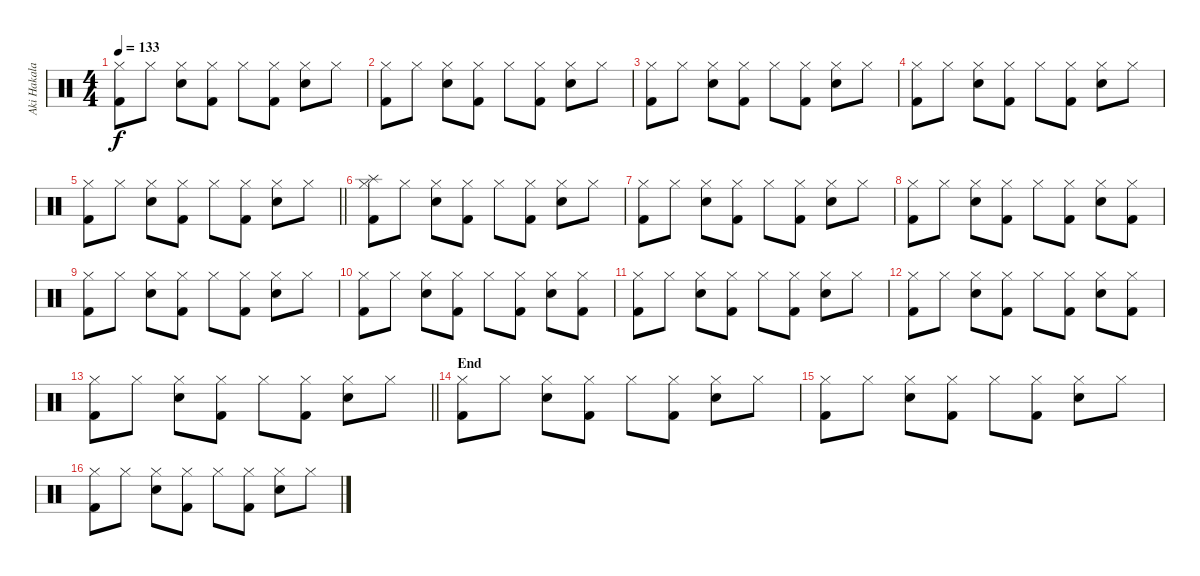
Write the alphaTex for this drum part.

\track ("Aki Hakala - Drums" "Aki Hakala") {instrument percussion}
\staff {score}
\articulation defaults
\ts (4 4)
\tempo 133
\clef neutral
\ks c
("Hi-Hat (closed)" "Kick (hit) 2").8{dy f} "Hi-Hat (closed)".8 ("Snare (hit) 2" "Hi-Hat (closed)").8 ("Hi-Hat (closed)" "Kick (hit) 2").8 "Hi-Hat (closed)".8 ("Hi-Hat (closed)" "Kick (hit) 2").8 ("Snare (hit) 2" "Hi-Hat (closed)").8 "Hi-Hat (closed)".8 |
("Hi-Hat (closed)" "Kick (hit) 2").8 "Hi-Hat (closed)".8 ("Snare (hit) 2" "Hi-Hat (closed)").8 ("Hi-Hat (closed)" "Kick (hit) 2").8 "Hi-Hat (closed)".8 ("Hi-Hat (closed)" "Kick (hit) 2").8 ("Snare (hit) 2" "Hi-Hat (closed)").8 "Hi-Hat (closed)".8 |
("Hi-Hat (closed)" "Kick (hit) 2").8 "Hi-Hat (closed)".8 ("Snare (hit) 2" "Hi-Hat (closed)").8 ("Hi-Hat (closed)" "Kick (hit) 2").8 "Hi-Hat (closed)".8 ("Hi-Hat (closed)" "Kick (hit) 2").8 ("Snare (hit) 2" "Hi-Hat (closed)").8 "Hi-Hat (closed)".8 |
("Hi-Hat (closed)" "Kick (hit) 2").8 "Hi-Hat (closed)".8 ("Snare (hit) 2" "Hi-Hat (closed)").8 ("Hi-Hat (closed)" "Kick (hit) 2").8 "Hi-Hat (closed)".8 ("Hi-Hat (closed)" "Kick (hit) 2").8 ("Snare (hit) 2" "Hi-Hat (closed)").8 "Hi-Hat (closed)".8 |
\barLineRight lightlight
("Hi-Hat (closed)" "Kick (hit) 2").8 "Hi-Hat (closed)".8 ("Snare (hit) 2" "Hi-Hat (closed)").8 ("Hi-Hat (closed)" "Kick (hit) 2").8 "Hi-Hat (closed)".8 ("Hi-Hat (closed)" "Kick (hit) 2").8 ("Snare (hit) 2" "Hi-Hat (closed)").8 "Hi-Hat (closed)".8 |
("Splash (hit)" "Hi-Hat (closed)" "Kick (hit) 2").8 "Hi-Hat (closed)".8 ("Snare (hit) 2" "Hi-Hat (closed)").8 ("Hi-Hat (closed)" "Kick (hit) 2").8 "Hi-Hat (closed)".8 ("Hi-Hat (closed)" "Kick (hit) 2").8 ("Snare (hit) 2" "Hi-Hat (closed)").8 "Hi-Hat (closed)".8 |
("Hi-Hat (closed)" "Kick (hit) 2").8 "Hi-Hat (closed)".8 ("Snare (hit) 2" "Hi-Hat (closed)").8 ("Hi-Hat (closed)" "Kick (hit) 2").8 "Hi-Hat (closed)".8 ("Hi-Hat (closed)" "Kick (hit) 2").8 ("Snare (hit) 2" "Hi-Hat (closed)").8 "Hi-Hat (closed)".8 |
("Hi-Hat (closed)" "Kick (hit) 2").8 "Hi-Hat (closed)".8 ("Snare (hit) 2" "Hi-Hat (closed)").8 ("Hi-Hat (closed)" "Kick (hit) 2").8 "Hi-Hat (closed)".8 ("Hi-Hat (closed)" "Kick (hit) 2").8 ("Snare (hit) 2" "Hi-Hat (closed)").8 ("Hi-Hat (closed)" "Kick (hit) 2").8 |
("Hi-Hat (closed)" "Kick (hit) 2").8 "Hi-Hat (closed)".8 ("Snare (hit) 2" "Hi-Hat (closed)").8 ("Hi-Hat (closed)" "Kick (hit) 2").8 "Hi-Hat (closed)".8 ("Hi-Hat (closed)" "Kick (hit) 2").8 ("Snare (hit) 2" "Hi-Hat (closed)").8 "Hi-Hat (closed)".8 |
("Hi-Hat (closed)" "Kick (hit) 2").8 "Hi-Hat (closed)".8 ("Snare (hit) 2" "Hi-Hat (closed)").8 ("Hi-Hat (closed)" "Kick (hit) 2").8 "Hi-Hat (closed)".8 ("Hi-Hat (closed)" "Kick (hit) 2").8 ("Snare (hit) 2" "Hi-Hat (closed)").8 ("Hi-Hat (closed)" "Kick (hit) 2").8 |
("Hi-Hat (closed)" "Kick (hit) 2").8 "Hi-Hat (closed)".8 ("Snare (hit) 2" "Hi-Hat (closed)").8 ("Hi-Hat (closed)" "Kick (hit) 2").8 "Hi-Hat (closed)".8 ("Hi-Hat (closed)" "Kick (hit) 2").8 ("Snare (hit) 2" "Hi-Hat (closed)").8 "Hi-Hat (closed)".8 |
("Hi-Hat (closed)" "Kick (hit) 2").8 "Hi-Hat (closed)".8 ("Snare (hit) 2" "Hi-Hat (closed)").8 ("Hi-Hat (closed)" "Kick (hit) 2").8 "Hi-Hat (closed)".8 ("Hi-Hat (closed)" "Kick (hit) 2").8 ("Snare (hit) 2" "Hi-Hat (closed)").8 ("Hi-Hat (closed)" "Kick (hit) 2").8 |
\barLineRight lightlight
("Hi-Hat (closed)" "Kick (hit) 2").8 "Hi-Hat (closed)".8 ("Snare (hit) 2" "Hi-Hat (closed)").8 ("Hi-Hat (closed)" "Kick (hit) 2").8 "Hi-Hat (closed)".8 ("Hi-Hat (closed)" "Kick (hit) 2").8 ("Snare (hit) 2" "Hi-Hat (closed)").8 "Hi-Hat (closed)".8 |
\section ("" "End")
("Hi-Hat (closed)" "Kick (hit) 2").8 "Hi-Hat (closed)".8 ("Snare (hit) 2" "Hi-Hat (closed)").8 ("Hi-Hat (closed)" "Kick (hit) 2").8 "Hi-Hat (closed)".8 ("Hi-Hat (closed)" "Kick (hit) 2").8 ("Snare (hit) 2" "Hi-Hat (closed)").8 "Hi-Hat (closed)".8 |
("Hi-Hat (closed)" "Kick (hit) 2").8 "Hi-Hat (closed)".8 ("Snare (hit) 2" "Hi-Hat (closed)").8 ("Hi-Hat (closed)" "Kick (hit) 2").8 "Hi-Hat (closed)".8 ("Hi-Hat (closed)" "Kick (hit) 2").8 ("Snare (hit) 2" "Hi-Hat (closed)").8 "Hi-Hat (closed)".8 |
("Hi-Hat (closed)" "Kick (hit) 2").8 "Hi-Hat (closed)".8 ("Snare (hit) 2" "Hi-Hat (closed)").8 ("Hi-Hat (closed)" "Kick (hit) 2").8 "Hi-Hat (closed)".8 ("Hi-Hat (closed)" "Kick (hit) 2").8 ("Snare (hit) 2" "Hi-Hat (closed)").8 "Hi-Hat (closed)".8
